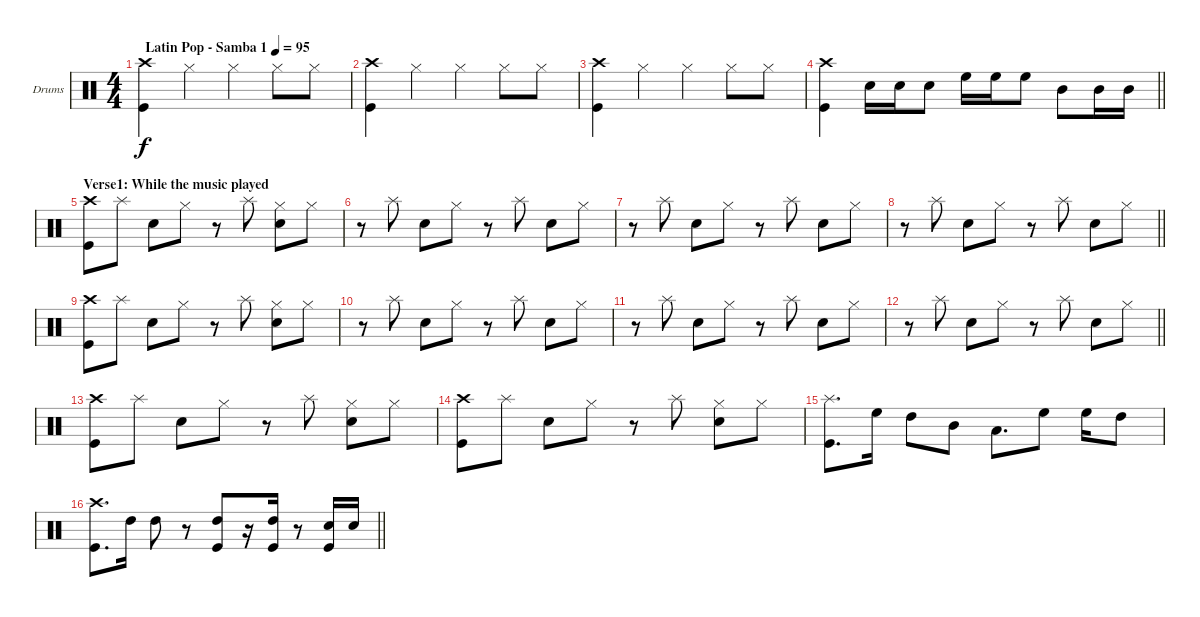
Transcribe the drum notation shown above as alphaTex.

\bracketExtendMode groupsimilarinstruments
\firstSystemTrackNameOrientation horizontal
\otherSystemsTrackNameOrientation horizontal
\track ("Drumkit" "Drums") {instrument percussion}
\staff {score}
\articulation defaults
\ts (4 4)
\beaming (8 2 2 2 2)
\tempo (95 "Latin Pop - Samba 1")
\clef neutral
\ks c
("Crash high (hit)" "Kick (hit)").4{dy f} "Hi-Hat (closed)".4 "Hi-Hat (closed)".4 "Hi-Hat (closed)".8 "Hi-Hat (closed)".8 |
("Crash high (hit)" "Kick (hit)").4 "Hi-Hat (closed)".4 "Hi-Hat (closed)".4 "Hi-Hat (closed)".8 "Hi-Hat (closed)".8 |
("Crash high (hit)" "Kick (hit)").4 "Hi-Hat (closed)".4 "Hi-Hat (closed)".4 "Hi-Hat (closed)".8 "Hi-Hat (closed)".8 |
\barLineRight lightlight
("Crash high (hit)" "Kick (hit)").4 "Snare (hit) 2".16 "Snare (hit) 2".16 "Snare (hit) 2".8 "High Floor Tom (hit)".16 "High Floor Tom (hit)".16 "High Floor Tom (hit)".8 "Mid Tom (hit)".8 "Mid Tom (hit)".16 "Mid Tom (hit)".16 |
\section ("" "Verse1: While the music played")
("Crash high (hit)" "Kick (hit)").8 "Splash (hit)".8 "Snare (hit) 2".8 "Hi-Hat (closed)".8 r.8 "Splash (hit)".8 ("Hi-Hat (closed)" "Snare (hit) 2").8 "Hi-Hat (closed)".8 |
r.8 "Splash (hit)".8 "Snare (hit) 2".8 "Hi-Hat (closed)".8 r.8 "Splash (hit)".8 "Snare (hit) 2".8 "Hi-Hat (closed)".8 |
r.8 "Splash (hit)".8 "Snare (hit) 2".8 "Hi-Hat (closed)".8 r.8 "Splash (hit)".8 "Snare (hit) 2".8 "Hi-Hat (closed)".8 |
\barLineRight lightlight
r.8 "Splash (hit)".8 "Snare (hit) 2".8 "Hi-Hat (closed)".8 r.8 "Splash (hit)".8 "Snare (hit) 2".8 "Hi-Hat (closed)".8 |
("Crash high (hit)" "Kick (hit)").8 "Splash (hit)".8 "Snare (hit) 2".8 "Hi-Hat (closed)".8 r.8 "Splash (hit)".8 ("Hi-Hat (closed)" "Snare (hit) 2").8 "Hi-Hat (closed)".8 |
r.8 "Splash (hit)".8 "Snare (hit) 2".8 "Hi-Hat (closed)".8 r.8 "Splash (hit)".8 "Snare (hit) 2".8 "Hi-Hat (closed)".8 |
r.8 "Splash (hit)".8 "Snare (hit) 2".8 "Hi-Hat (closed)".8 r.8 "Splash (hit)".8 "Snare (hit) 2".8 "Hi-Hat (closed)".8 |
\barLineRight lightlight
r.8 "Splash (hit)".8 "Snare (hit) 2".8 "Hi-Hat (closed)".8 r.8 "Splash (hit)".8 "Snare (hit) 2".8 "Hi-Hat (closed)".8 |
("Crash high (hit)" "Kick (hit)").8 "Splash (hit)".8 "Snare (hit) 2".8 "Hi-Hat (closed)".8 r.8 "Splash (hit)".8 ("Hi-Hat (closed)" "Snare (hit) 2").8 "Hi-Hat (closed)".8 |
("Crash high (hit)" "Kick (hit)").8 "Splash (hit)".8 "Snare (hit) 2".8 "Hi-Hat (closed)".8 r.8 "Splash (hit)".8 ("Hi-Hat (closed)" "Snare (hit) 2").8 "Hi-Hat (closed)".8 |
("Splash (hit)" "Kick (hit)").8{d} "High Floor Tom (hit)".16 "High Tom (hit)".8 "Mid Tom (hit)".8 "Low Tom (hit)".8{d} "High Floor Tom (hit)".8 "High Floor Tom (hit)".16 "High Tom (hit)".8 |
\barLineRight lightlight
("Crash high (hit)" "Kick (hit)").8{d} "High Tom (hit)".16 "High Tom (hit)".8 r.8 ("High Tom (hit)" "Kick (hit)").8 r.16 ("High Tom (hit)" "Kick (hit)").16 r.8 ("Snare (hit) 2" "Kick (hit)").16 "Snare (hit) 2".16
